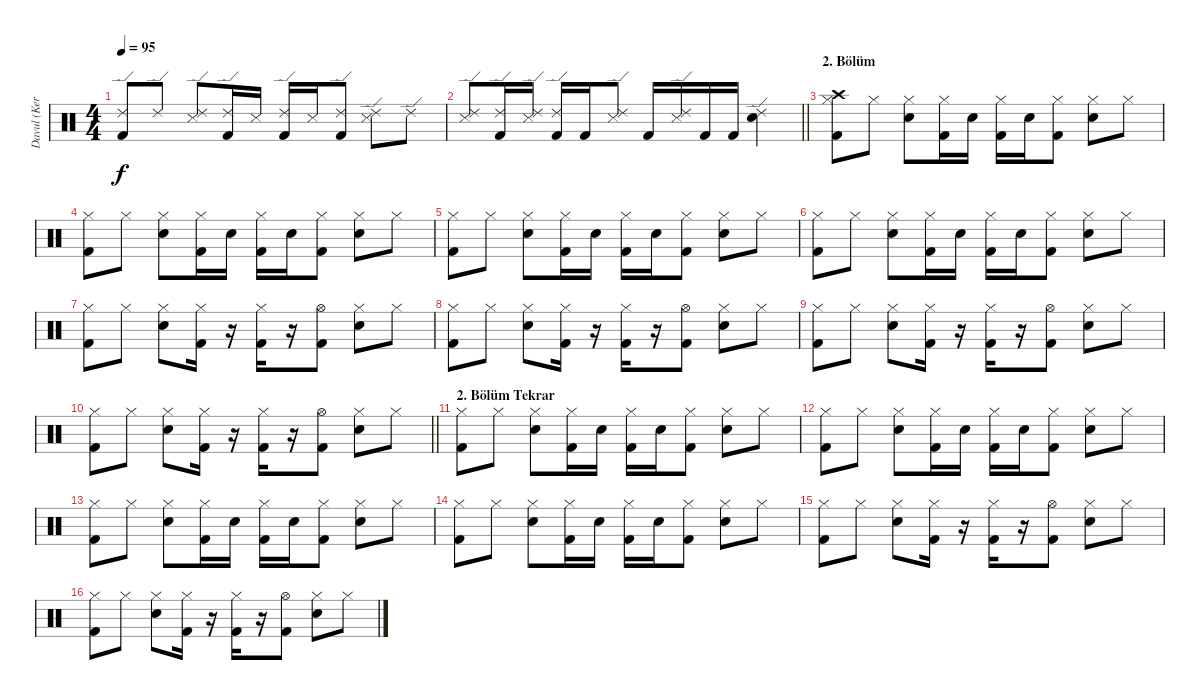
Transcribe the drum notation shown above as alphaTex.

\track ("Davul (Kerem Kabadayı)" "Davul (Ker") {instrument percussion}
\staff {score}
\articulation defaults
\ts (4 4)
\tempo 95
\clef neutral
\ks c
("Kick (hit) 2" "Ride (edge) 2").8{dy f} "Ride (edge) 2".8 ("Snare (side stick) 3" "Ride (edge) 2").8 ("Kick (hit) 2" "Ride (edge) 2").16 "Snare (side stick) 3".16 ("Kick (hit) 2" "Ride (edge) 2").16 "Snare (side stick) 3".16 ("Kick (hit) 2" "Ride (edge) 2").8 ("Snare (side stick) 3" "Ride (edge) 2").8 "Ride (edge) 2".8 |
\barLineRight lightlight
("Snare (side stick) 3" "Ride (edge) 2").8 ("Kick (hit) 2" "Ride (edge) 2").16 ("Snare (side stick) 3" "Ride (edge) 2").16 ("Kick (hit) 2" "Ride (edge) 2").16 "Kick (hit) 2".16 ("Snare (side stick) 3" "Ride (edge) 2").8 "Kick (hit) 2".16 ("Snare (side stick) 3" "Ride (edge) 2").16 "Kick (hit) 2".16 "Kick (hit) 2".16 ("Electric Snare (hit)" "Ride (edge) 2").4 |
\section ("" "2. Bölüm")
("Crash high (hit)" "Kick (hit) 2" "Hi-Hat (closed)").8 "Hi-Hat (closed)".8 ("Snare (hit) 2" "Hi-Hat (closed)").8 ("Kick (hit) 2" "Hi-Hat (closed)").16 "Snare (hit) 2".16 ("Kick (hit) 2" "Hi-Hat (closed)").16 "Snare (hit) 2".16 ("Kick (hit) 2" "Hi-Hat (closed)").8 ("Snare (hit) 2" "Hi-Hat (closed)").8 "Hi-Hat (closed)".8 |
("Kick (hit) 2" "Hi-Hat (closed)").8 "Hi-Hat (closed)".8 ("Snare (hit) 2" "Hi-Hat (closed)").8 ("Kick (hit) 2" "Hi-Hat (closed)").16 "Snare (hit) 2".16 ("Kick (hit) 2" "Hi-Hat (closed)").16 "Snare (hit) 2".16 ("Kick (hit) 2" "Hi-Hat (closed)").8 ("Snare (hit) 2" "Hi-Hat (closed)").8 "Hi-Hat (closed)".8 |
("Kick (hit) 2" "Hi-Hat (closed)").8 "Hi-Hat (closed)".8 ("Snare (hit) 2" "Hi-Hat (closed)").8 ("Kick (hit) 2" "Hi-Hat (closed)").16 "Snare (hit) 2".16 ("Kick (hit) 2" "Hi-Hat (closed)").16 "Snare (hit) 2".16 ("Kick (hit) 2" "Hi-Hat (closed)").8 ("Snare (hit) 2" "Hi-Hat (closed)").8 "Hi-Hat (closed)".8 |
("Kick (hit) 2" "Hi-Hat (closed)").8 "Hi-Hat (closed)".8 ("Snare (hit) 2" "Hi-Hat (closed)").8 ("Kick (hit) 2" "Hi-Hat (closed)").16 "Snare (hit) 2".16 ("Kick (hit) 2" "Hi-Hat (closed)").16 "Snare (hit) 2".16 ("Kick (hit) 2" "Hi-Hat (closed)").8 ("Snare (hit) 2" "Hi-Hat (closed)").8 "Hi-Hat (closed)".8 |
("Kick (hit) 2" "Hi-Hat (closed)").8 "Hi-Hat (closed)".8 ("Snare (hit) 2" "Hi-Hat (closed)").8 ("Kick (hit) 2" "Hi-Hat (closed)").16 r.16 ("Kick (hit) 2" "Hi-Hat (closed)").16 r.16 ("Kick (hit) 2" "Hi-Hat (open)").8 ("Snare (hit) 2" "Hi-Hat (closed)").8 "Hi-Hat (closed)".8 |
("Kick (hit) 2" "Hi-Hat (closed)").8 "Hi-Hat (closed)".8 ("Snare (hit) 2" "Hi-Hat (closed)").8 ("Kick (hit) 2" "Hi-Hat (closed)").16 r.16 ("Kick (hit) 2" "Hi-Hat (closed)").16 r.16 ("Kick (hit) 2" "Hi-Hat (open)").8 ("Snare (hit) 2" "Hi-Hat (closed)").8 "Hi-Hat (closed)".8 |
("Kick (hit) 2" "Hi-Hat (closed)").8 "Hi-Hat (closed)".8 ("Snare (hit) 2" "Hi-Hat (closed)").8 ("Kick (hit) 2" "Hi-Hat (closed)").16 r.16 ("Kick (hit) 2" "Hi-Hat (closed)").16 r.16 ("Kick (hit) 2" "Hi-Hat (open)").8 ("Snare (hit) 2" "Hi-Hat (closed)").8 "Hi-Hat (closed)".8 |
\barLineRight lightlight
("Kick (hit) 2" "Hi-Hat (closed)").8 "Hi-Hat (closed)".8 ("Snare (hit) 2" "Hi-Hat (closed)").8 ("Kick (hit) 2" "Hi-Hat (closed)").16 r.16 ("Kick (hit) 2" "Hi-Hat (closed)").16 r.16 ("Kick (hit) 2" "Hi-Hat (open)").8 ("Snare (hit) 2" "Hi-Hat (closed)").8 "Hi-Hat (closed)".8 |
\section ("" "2. Bölüm Tekrar")
("Kick (hit) 2" "Hi-Hat (closed)").8 "Hi-Hat (closed)".8 ("Snare (hit) 2" "Hi-Hat (closed)").8 ("Kick (hit) 2" "Hi-Hat (closed)").16 "Snare (hit) 2".16 ("Kick (hit) 2" "Hi-Hat (closed)").16 "Snare (hit) 2".16 ("Kick (hit) 2" "Hi-Hat (closed)").8 ("Snare (hit) 2" "Hi-Hat (closed)").8 "Hi-Hat (closed)".8 |
("Kick (hit) 2" "Hi-Hat (closed)").8 "Hi-Hat (closed)".8 ("Snare (hit) 2" "Hi-Hat (closed)").8 ("Kick (hit) 2" "Hi-Hat (closed)").16 "Snare (hit) 2".16 ("Kick (hit) 2" "Hi-Hat (closed)").16 "Snare (hit) 2".16 ("Kick (hit) 2" "Hi-Hat (closed)").8 ("Snare (hit) 2" "Hi-Hat (closed)").8 "Hi-Hat (closed)".8 |
("Kick (hit) 2" "Hi-Hat (closed)").8 "Hi-Hat (closed)".8 ("Snare (hit) 2" "Hi-Hat (closed)").8 ("Kick (hit) 2" "Hi-Hat (closed)").16 "Snare (hit) 2".16 ("Kick (hit) 2" "Hi-Hat (closed)").16 "Snare (hit) 2".16 ("Kick (hit) 2" "Hi-Hat (closed)").8 ("Snare (hit) 2" "Hi-Hat (closed)").8 "Hi-Hat (closed)".8 |
("Kick (hit) 2" "Hi-Hat (closed)").8 "Hi-Hat (closed)".8 ("Snare (hit) 2" "Hi-Hat (closed)").8 ("Kick (hit) 2" "Hi-Hat (closed)").16 "Snare (hit) 2".16 ("Kick (hit) 2" "Hi-Hat (closed)").16 "Snare (hit) 2".16 ("Kick (hit) 2" "Hi-Hat (closed)").8 ("Snare (hit) 2" "Hi-Hat (closed)").8 "Hi-Hat (closed)".8 |
("Kick (hit) 2" "Hi-Hat (closed)").8 "Hi-Hat (closed)".8 ("Snare (hit) 2" "Hi-Hat (closed)").8 ("Kick (hit) 2" "Hi-Hat (closed)").16 r.16 ("Kick (hit) 2" "Hi-Hat (closed)").16 r.16 ("Kick (hit) 2" "Hi-Hat (open)").8 ("Snare (hit) 2" "Hi-Hat (closed)").8 "Hi-Hat (closed)".8 |
("Kick (hit) 2" "Hi-Hat (closed)").8 "Hi-Hat (closed)".8 ("Snare (hit) 2" "Hi-Hat (closed)").8 ("Kick (hit) 2" "Hi-Hat (closed)").16 r.16 ("Kick (hit) 2" "Hi-Hat (closed)").16 r.16 ("Kick (hit) 2" "Hi-Hat (open)").8 ("Snare (hit) 2" "Hi-Hat (closed)").8 "Hi-Hat (closed)".8
